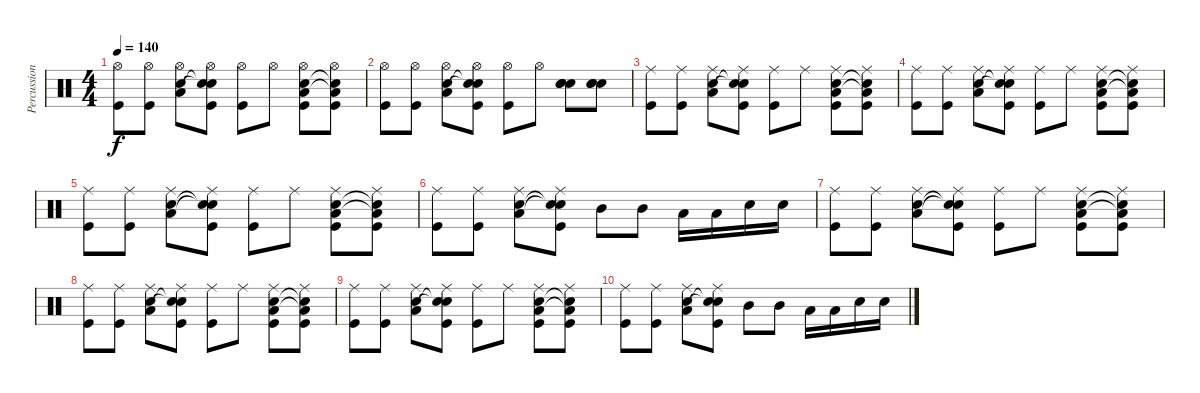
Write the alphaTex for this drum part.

\track ("Percussion" "Percussion") {instrument percussion}
\staff {score}
\articulation defaults
\ts (4 4)
\tempo 140
\clef neutral
\ks c
("Hi-Hat (open)" "Kick (hit)").8{dy f} ("Hi-Hat (open)" "Kick (hit)").8 ("Hi-Hat (open)" "Snare (hit) 2" "Low Tom (hit)").8 ("Hi-Hat (open)" "Snare (hit) 2"{t} "Snare (hit)"{t} "Kick (hit)").8 ("Hi-Hat (open)" "Kick (hit)").8 "Hi-Hat (open)".8 ("Hi-Hat (open)" "Low Tom (hit)" "Snare (hit) 2" "Kick (hit)").8 ("Hi-Hat (open)" "Low Tom (hit)"{t} "Snare (hit) 2"{t} "Kick (hit)").8 |
("Hi-Hat (open)" "Kick (hit)").8 ("Hi-Hat (open)" "Kick (hit)").8 ("Hi-Hat (open)" "Low Tom (hit)" "Snare (hit) 2").8 ("Hi-Hat (open)" "Snare (hit) 2"{t} "Snare (hit)"{t} "Kick (hit)").8 ("Hi-Hat (open)" "Kick (hit)").8 "Hi-Hat (open)".8 ("Snare (hit) 2" "Snare (hit) 2" "Snare (hit) 2").8 ("Snare (hit) 2" "Snare (hit) 2" "Snare (hit) 2").8 |
("Ride (middle)" "Kick (hit)").8 ("Ride (middle)" "Kick (hit)").8 ("Ride (middle)" "Snare (hit) 2" "Low Tom (hit)").8 ("Ride (middle)" "Snare (hit) 2"{t} "Snare (hit)"{t} "Kick (hit)").8 ("Ride (middle)" "Kick (hit)").8 "Ride (middle)".8 ("Ride (middle)" "Low Tom (hit)" "Snare (hit) 2" "Kick (hit)").8 ("Ride (middle)" "Low Tom (hit)"{t} "Snare (hit) 2"{t} "Kick (hit)").8 |
("Ride (middle)" "Kick (hit)").8 ("Ride (middle)" "Kick (hit)").8 ("Ride (middle)" "Low Tom (hit)" "Snare (hit) 2").8 ("Ride (middle)" "Snare (hit) 2"{t} "Snare (hit)"{t} "Kick (hit)").8 ("Ride (middle)" "Kick (hit)").8 "Ride (middle)".8 ("Ride (middle)" "Low Tom (hit)" "Snare (hit) 2" "Kick (hit)").8 ("Ride (middle)" "Low Tom (hit)"{t} "Snare (hit) 2"{t} "Kick (hit)").8 |
("Ride (middle)" "Kick (hit)").8 ("Ride (middle)" "Kick (hit)").8 ("Ride (middle)" "Snare (hit) 2" "Low Tom (hit)").8 ("Ride (middle)" "Snare (hit) 2"{t} "Snare (hit)"{t} "Kick (hit)").8 ("Ride (middle)" "Kick (hit)").8 "Ride (middle)".8 ("Ride (middle)" "Low Tom (hit)" "Snare (hit) 2" "Kick (hit)").8 ("Ride (middle)" "Low Tom (hit)"{t} "Snare (hit) 2"{t} "Kick (hit)").8 |
("Ride (middle)" "Kick (hit)").8 ("Ride (middle)" "Kick (hit)").8 ("Ride (middle)" "Low Tom (hit)" "Snare (hit) 2").8 ("Ride (middle)" "Snare (hit) 2"{t} "Snare (hit)"{t} "Kick (hit)").8 "Mid Tom (hit)".8 "Mid Tom (hit)".8 "Low Tom (hit)".16 "Low Tom (hit)".16 "Snare (hit) 2".16 "Snare (hit) 2".16 |
("Ride (middle)" "Kick (hit)").8 ("Ride (middle)" "Kick (hit)").8 ("Ride (middle)" "Snare (hit) 2" "Low Tom (hit)").8 ("Ride (middle)" "Snare (hit) 2"{t} "Snare (hit)"{t} "Kick (hit)").8 ("Ride (middle)" "Kick (hit)").8 "Ride (middle)".8 ("Ride (middle)" "Low Tom (hit)" "Snare (hit) 2" "Kick (hit)").8 ("Ride (middle)" "Low Tom (hit)"{t} "Snare (hit) 2"{t} "Kick (hit)").8 |
("Ride (middle)" "Kick (hit)").8 ("Ride (middle)" "Kick (hit)").8 ("Ride (middle)" "Low Tom (hit)" "Snare (hit) 2").8 ("Ride (middle)" "Snare (hit) 2"{t} "Snare (hit)"{t} "Kick (hit)").8 ("Ride (middle)" "Kick (hit)").8 "Ride (middle)".8 ("Ride (middle)" "Low Tom (hit)" "Snare (hit) 2" "Kick (hit)").8 ("Ride (middle)" "Low Tom (hit)"{t} "Snare (hit) 2"{t} "Kick (hit)").8 |
("Ride (middle)" "Kick (hit)").8 ("Ride (middle)" "Kick (hit)").8 ("Ride (middle)" "Snare (hit) 2" "Low Tom (hit)").8 ("Ride (middle)" "Snare (hit) 2"{t} "Snare (hit)"{t} "Kick (hit)").8 ("Ride (middle)" "Kick (hit)").8 "Ride (middle)".8 ("Ride (middle)" "Low Tom (hit)" "Snare (hit) 2" "Kick (hit)").8 ("Ride (middle)" "Low Tom (hit)"{t} "Snare (hit) 2"{t} "Kick (hit)").8 |
("Ride (middle)" "Kick (hit)").8 ("Ride (middle)" "Kick (hit)").8 ("Ride (middle)" "Low Tom (hit)" "Snare (hit) 2").8 ("Ride (middle)" "Snare (hit) 2"{t} "Snare (hit)"{t} "Kick (hit)").8 "Mid Tom (hit)".8 "Mid Tom (hit)".8 "Low Tom (hit)".16 "Low Tom (hit)".16 "Snare (hit) 2".16 "Snare (hit) 2".16
